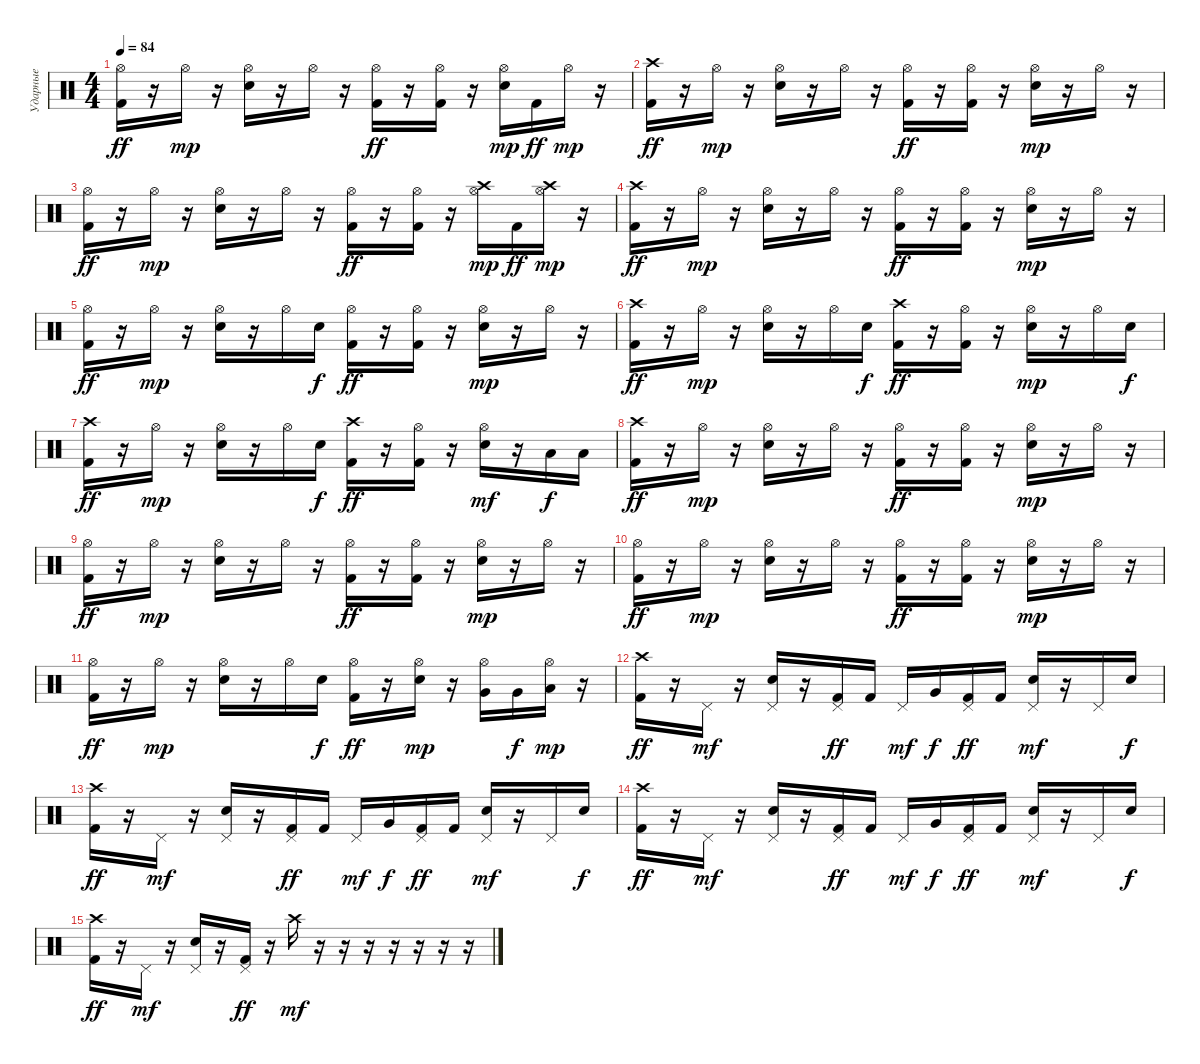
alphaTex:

\track ("Ударные" "Ударные") {instrument percussion}
\staff {score}
\articulation defaults
\ts (4 4)
\tempo 84
\clef neutral
\ks c
("Hi-Hat (open)" "Kick (hit) 2").16{dy ff} r.16 "Hi-Hat (open)".16{dy mp} r.16 ("Hi-Hat (open)" "Electric Snare (hit)").16 r.16 "Hi-Hat (open)".16 r.16 ("Hi-Hat (open)" "Kick (hit) 2").16{dy ff} r.16 ("Hi-Hat (open)" "Kick (hit) 2").16 r.16 ("Hi-Hat (open)" "Electric Snare (hit)").16{dy mp} "Kick (hit) 2".16{dy ff} "Hi-Hat (open)".16{dy mp} r.16 |
("Crash high (hit)" "Kick (hit) 2").16{dy ff} r.16 "Hi-Hat (open)".16{dy mp} r.16 ("Hi-Hat (open)" "Electric Snare (hit)").16 r.16 "Hi-Hat (open)".16 r.16 ("Hi-Hat (open)" "Kick (hit) 2").16{dy ff} r.16 ("Hi-Hat (open)" "Kick (hit) 2").16 r.16 ("Hi-Hat (open)" "Electric Snare (hit)").16{dy mp} r.16 "Hi-Hat (open)".16 r.16 |
("Hi-Hat (open)" "Kick (hit) 2").16{dy ff} r.16 "Hi-Hat (open)".16{dy mp} r.16 ("Hi-Hat (open)" "Electric Snare (hit)").16 r.16 "Hi-Hat (open)".16 r.16 ("Hi-Hat (open)" "Kick (hit) 2").16{dy ff} r.16 ("Hi-Hat (open)" "Kick (hit) 2").16 r.16 ("Hi-Hat (open)" "Crash high (hit)").16{dy mp} "Kick (hit) 2".16{dy ff} ("Hi-Hat (open)" "Crash high (hit)").16{dy mp} r.16 |
("Crash high (hit)" "Kick (hit) 2").16{dy ff} r.16 "Hi-Hat (open)".16{dy mp} r.16 ("Hi-Hat (open)" "Electric Snare (hit)").16 r.16 "Hi-Hat (open)".16 r.16 ("Hi-Hat (open)" "Kick (hit) 2").16{dy ff} r.16 ("Hi-Hat (open)" "Kick (hit) 2").16 r.16 ("Hi-Hat (open)" "Electric Snare (hit)").16{dy mp} r.16 "Hi-Hat (open)".16 r.16 |
("Hi-Hat (open)" "Kick (hit) 2").16{dy ff} r.16 "Hi-Hat (open)".16{dy mp} r.16 ("Hi-Hat (open)" "Electric Snare (hit)").16 r.16 "Hi-Hat (open)".16 "Electric Snare (hit)".16{dy f} ("Hi-Hat (open)" "Kick (hit) 2").16{dy ff} r.16 ("Hi-Hat (open)" "Kick (hit) 2").16 r.16 ("Hi-Hat (open)" "Electric Snare (hit)").16{dy mp} r.16 "Hi-Hat (open)".16 r.16 |
("Crash high (hit)" "Kick (hit) 2").16{dy ff} r.16 "Hi-Hat (open)".16{dy mp} r.16 ("Hi-Hat (open)" "Electric Snare (hit)").16 r.16 "Hi-Hat (open)".16 "Electric Snare (hit)".16{dy f} ("Crash high (hit)" "Kick (hit) 2").16{dy ff} r.16 ("Hi-Hat (open)" "Kick (hit) 2").16 r.16 ("Hi-Hat (open)" "Electric Snare (hit)").16{dy mp} r.16 "Hi-Hat (open)".16 "Electric Snare (hit)".16{dy f} |
("Crash high (hit)" "Kick (hit) 2").16{dy ff} r.16 "Hi-Hat (open)".16{dy mp} r.16 ("Hi-Hat (open)" "Electric Snare (hit)").16 r.16 "Hi-Hat (open)".16 "Electric Snare (hit)".16{dy f} ("Crash high (hit)" "Kick (hit) 2").16{dy ff} r.16 ("Hi-Hat (open)" "Kick (hit) 2").16 r.16 ("Hi-Hat (open)" "Electric Snare (hit)").16{dy mf} r.16 "Low Tom (hit)".16{dy f} "Low Tom (hit)".16 |
("Crash high (hit)" "Kick (hit) 2").16{dy ff} r.16 "Hi-Hat (open)".16{dy mp} r.16 ("Hi-Hat (open)" "Electric Snare (hit)").16 r.16 "Hi-Hat (open)".16 r.16 ("Hi-Hat (open)" "Kick (hit) 2").16{dy ff} r.16 ("Hi-Hat (open)" "Kick (hit) 2").16 r.16 ("Hi-Hat (open)" "Electric Snare (hit)").16{dy mp} r.16 "Hi-Hat (open)".16 r.16 |
("Hi-Hat (open)" "Kick (hit) 2").16{dy ff} r.16 "Hi-Hat (open)".16{dy mp} r.16 ("Hi-Hat (open)" "Electric Snare (hit)").16 r.16 "Hi-Hat (open)".16 r.16 ("Hi-Hat (open)" "Kick (hit) 2").16{dy ff} r.16 ("Hi-Hat (open)" "Kick (hit) 2").16 r.16 ("Hi-Hat (open)" "Electric Snare (hit)").16{dy mp} r.16 "Hi-Hat (open)".16 r.16 |
("Hi-Hat (open)" "Kick (hit) 2").16{dy ff} r.16 "Hi-Hat (open)".16{dy mp} r.16 ("Hi-Hat (open)" "Electric Snare (hit)").16 r.16 "Hi-Hat (open)".16 r.16 ("Hi-Hat (open)" "Kick (hit) 2").16{dy ff} r.16 ("Hi-Hat (open)" "Kick (hit) 2").16 r.16 ("Hi-Hat (open)" "Electric Snare (hit)").16{dy mp} r.16 "Hi-Hat (open)".16 r.16 |
("Hi-Hat (open)" "Kick (hit) 2").16{dy ff} r.16 "Hi-Hat (open)".16{dy mp} r.16 ("Hi-Hat (open)" "Electric Snare (hit)").16 r.16 "Hi-Hat (open)".16 "Electric Snare (hit)".16{dy f} ("Hi-Hat (open)" "Kick (hit) 2").16{dy ff} r.16 ("Hi-Hat (open)" "Electric Snare (hit)").16{dy mp} r.16 ("Hi-Hat (open)" "Very Low Tom (hit)").16 "Very Low Tom (hit)".16{dy f} ("Hi-Hat (open)" "Low Floor Tom (hit)").16{dy mp} r.16 |
("Crash high (hit)" "Kick (hit) 2").16{dy ff} r.16 "Pedal Hi-Hat (hit)".16{dy mf} r.16 ("Pedal Hi-Hat (hit)" "Electric Snare (hit)").16 r.16 ("Pedal Hi-Hat (hit)" "Kick (hit) 2").16{dy ff} "Kick (hit) 2".16 "Pedal Hi-Hat (hit)".16{dy mf} "Very Low Tom (hit)".16{dy f} ("Pedal Hi-Hat (hit)" "Kick (hit) 2").16{dy ff} "Kick (hit) 2".16 ("Pedal Hi-Hat (hit)" "Electric Snare (hit)").16{dy mf} r.16 "Pedal Hi-Hat (hit)".16 "Electric Snare (hit)".16{dy f} |
("Crash high (hit)" "Kick (hit) 2").16{dy ff} r.16 "Pedal Hi-Hat (hit)".16{dy mf} r.16 ("Pedal Hi-Hat (hit)" "Electric Snare (hit)").16 r.16 ("Pedal Hi-Hat (hit)" "Kick (hit) 2").16{dy ff} "Kick (hit) 2".16 "Pedal Hi-Hat (hit)".16{dy mf} "Very Low Tom (hit)".16{dy f} ("Pedal Hi-Hat (hit)" "Kick (hit) 2").16{dy ff} "Kick (hit) 2".16 ("Pedal Hi-Hat (hit)" "Electric Snare (hit)").16{dy mf} r.16 "Pedal Hi-Hat (hit)".16 "Electric Snare (hit)".16{dy f} |
("Crash high (hit)" "Kick (hit) 2").16{dy ff} r.16 "Pedal Hi-Hat (hit)".16{dy mf} r.16 ("Pedal Hi-Hat (hit)" "Electric Snare (hit)").16 r.16 ("Pedal Hi-Hat (hit)" "Kick (hit) 2").16{dy ff} "Kick (hit) 2".16 "Pedal Hi-Hat (hit)".16{dy mf} "Very Low Tom (hit)".16{dy f} ("Pedal Hi-Hat (hit)" "Kick (hit) 2").16{dy ff} "Kick (hit) 2".16 ("Pedal Hi-Hat (hit)" "Electric Snare (hit)").16{dy mf} r.16 "Pedal Hi-Hat (hit)".16 "Electric Snare (hit)".16{dy f} |
("Crash high (hit)" "Kick (hit) 2").16{dy ff} r.16 "Pedal Hi-Hat (hit)".16{dy mf} r.16 ("Pedal Hi-Hat (hit)" "Electric Snare (hit)").16 r.16 ("Pedal Hi-Hat (hit)" "Kick (hit) 2").16{dy ff} r.16 "Crash high (hit)".16{dy mf} r.16 r.16 r.16 r.16 r.16 r.16 r.16
